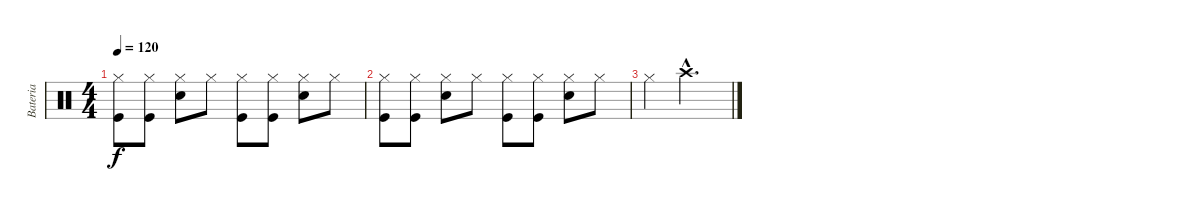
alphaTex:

\track ("Bateria" "Bateria") {instrument percussion}
\staff {score}
\articulation defaults
\ts (4 4)
\tempo 120
\clef neutral
\ks c
("Hi-Hat (closed)" "Kick (hit)").8{dy f} ("Hi-Hat (closed)" "Kick (hit)").8 ("Hi-Hat (closed)" "Snare (hit) 2").8 "Hi-Hat (closed)".8 ("Hi-Hat (closed)" "Kick (hit)").8 ("Hi-Hat (closed)" "Kick (hit)").8 ("Hi-Hat (closed)" "Snare (hit) 2").8 "Hi-Hat (closed)".8 |
("Hi-Hat (closed)" "Kick (hit)").8 ("Hi-Hat (closed)" "Kick (hit)").8 ("Hi-Hat (closed)" "Snare (hit) 2").8 "Hi-Hat (closed)".8 ("Hi-Hat (closed)" "Kick (hit)").8 ("Hi-Hat (closed)" "Kick (hit)").8 ("Hi-Hat (closed)" "Snare (hit) 2").8 "Hi-Hat (closed)".8 |
"Hi-Hat (closed)".4 "Crash high (hit)"{hac}.2{d}
